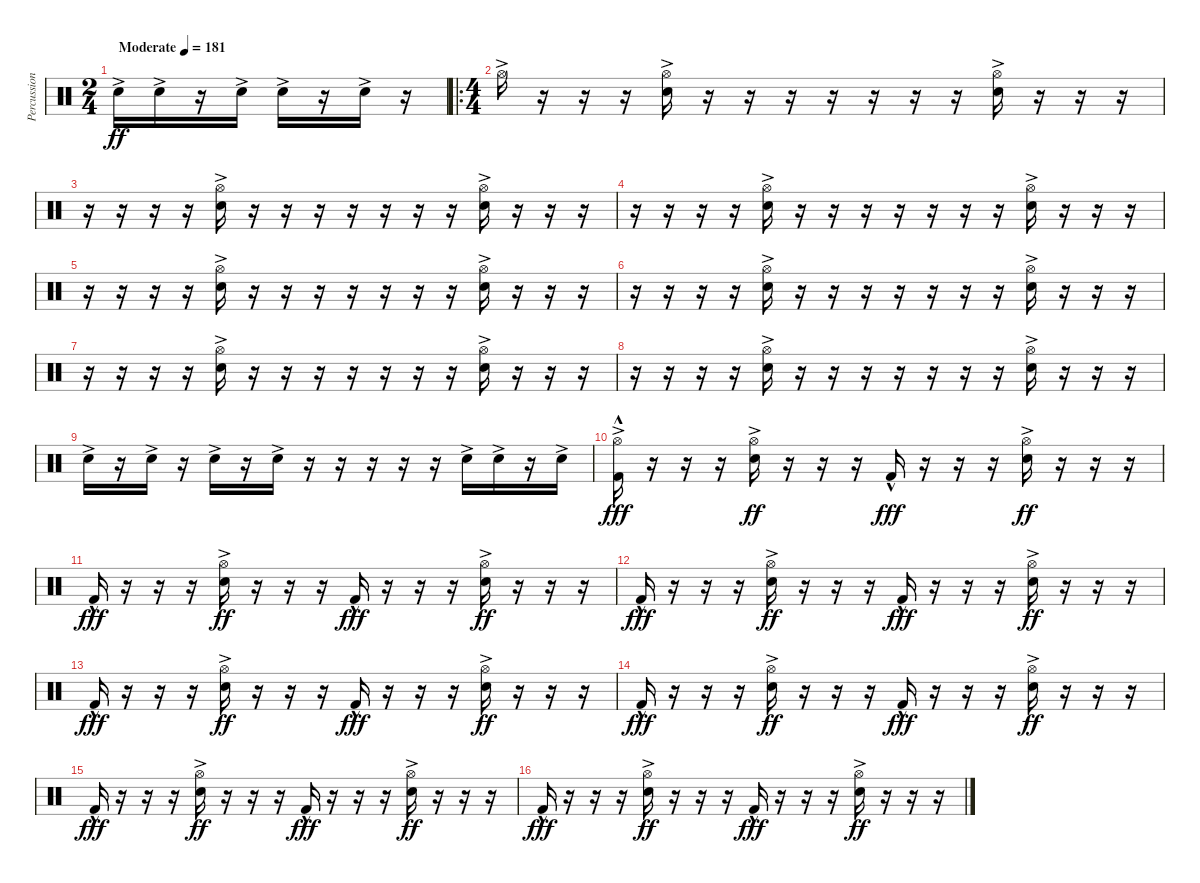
\track ("Percussion" "Percussion") {instrument percussion}
\staff {score}
\articulation defaults
\ts (2 4)
\tempo (181 "Moderate")
\clef neutral
\ks c "Snare (hit) 2"{ac}.16{dy ff} "Snare (hit) 2"{ac}.16
r.16 "Snare (hit) 2"{ac}.16 "Snare (hit) 2"{ac}.16 r.16 "Snare (hit) 2"{ac}.16 r.16 |
\ro
\ts (4 4)
"Hi-Hat (open)"{ac}.16 r.16 r.16 r.16 ("Hi-Hat (open)"{ac} "Snare (hit) 2"{ac}).16 r.16 r.16 r.16 r.16 r.16 r.16 r.16 ("Hi-Hat (open)"{ac} "Snare (hit) 2"{ac}).16 r.16 r.16 r.16 |
r.16 r.16 r.16 r.16 ("Hi-Hat (open)"{ac} "Snare (hit) 2"{ac}).16 r.16 r.16 r.16 r.16 r.16 r.16 r.16 ("Hi-Hat (open)"{ac} "Snare (hit) 2"{ac}).16 r.16 r.16 r.16 |
r.16 r.16 r.16 r.16 ("Hi-Hat (open)"{ac} "Snare (hit) 2"{ac}).16 r.16 r.16 r.16 r.16 r.16 r.16 r.16 ("Hi-Hat (open)"{ac} "Snare (hit) 2"{ac}).16 r.16 r.16 r.16 |
r.16 r.16 r.16 r.16 ("Hi-Hat (open)"{ac} "Snare (hit) 2"{ac}).16 r.16 r.16 r.16 r.16 r.16 r.16 r.16 ("Hi-Hat (open)"{ac} "Snare (hit) 2"{ac}).16 r.16 r.16 r.16 |
r.16 r.16 r.16 r.16 ("Hi-Hat (open)"{ac} "Snare (hit) 2"{ac}).16 r.16 r.16 r.16 r.16 r.16 r.16 r.16 ("Hi-Hat (open)"{ac} "Snare (hit) 2"{ac}).16 r.16 r.16 r.16 |
r.16 r.16 r.16 r.16 ("Hi-Hat (open)"{ac} "Snare (hit) 2"{ac}).16 r.16 r.16 r.16 r.16 r.16 r.16 r.16 ("Hi-Hat (open)"{ac} "Snare (hit) 2"{ac}).16 r.16 r.16 r.16 |
r.16 r.16 r.16 r.16 ("Hi-Hat (open)"{ac} "Snare (hit) 2"{ac}).16 r.16 r.16 r.16 r.16 r.16 r.16 r.16 ("Hi-Hat (open)"{ac} "Snare (hit) 2"{ac}).16 r.16 r.16 r.16 |
"Snare (hit) 2"{ac}.16 r.16 "Snare (hit) 2"{ac}.16 r.16 "Snare (hit) 2"{ac}.16 r.16 "Snare (hit) 2"{ac}.16 r.16 r.16 r.16 r.16 r.16 "Snare (hit) 2"{ac}.16 "Snare (hit) 2"{ac}.16 r.16 "Snare (hit) 2"{ac}.16 |
("Hi-Hat (open)"{ac} "Kick (hit) 2"{hac}).16{dy fff} r.16 r.16 r.16 ("Hi-Hat (open)"{ac} "Snare (hit) 2"{ac}).16{dy ff} r.16 r.16 r.16 "Kick (hit) 2"{hac}.16{dy fff} r.16 r.16 r.16 ("Hi-Hat (open)"{ac} "Snare (hit) 2"{ac}).16{dy ff} r.16 r.16 r.16 |
"Kick (hit) 2"{hac}.16{dy fff} r.16 r.16 r.16 ("Hi-Hat (open)"{ac} "Snare (hit) 2"{ac}).16{dy ff} r.16 r.16 r.16 "Kick (hit) 2"{hac}.16{dy fff} r.16 r.16 r.16 ("Hi-Hat (open)"{ac} "Snare (hit) 2"{ac}).16{dy ff} r.16 r.16 r.16 |
"Kick (hit) 2"{hac}.16{dy fff} r.16 r.16 r.16 ("Hi-Hat (open)"{ac} "Snare (hit) 2"{ac}).16{dy ff} r.16 r.16 r.16 "Kick (hit) 2"{hac}.16{dy fff} r.16 r.16 r.16 ("Hi-Hat (open)"{ac} "Snare (hit) 2"{ac}).16{dy ff} r.16 r.16 r.16 |
"Kick (hit) 2"{hac}.16{dy fff} r.16 r.16 r.16 ("Hi-Hat (open)"{ac} "Snare (hit) 2"{ac}).16{dy ff} r.16 r.16 r.16 "Kick (hit) 2"{hac}.16{dy fff} r.16 r.16 r.16 ("Hi-Hat (open)"{ac} "Snare (hit) 2"{ac}).16{dy ff} r.16 r.16 r.16 |
"Kick (hit) 2"{hac}.16{dy fff} r.16 r.16 r.16 ("Hi-Hat (open)"{ac} "Snare (hit) 2"{ac}).16{dy ff} r.16 r.16 r.16 "Kick (hit) 2"{hac}.16{dy fff} r.16 r.16 r.16 ("Hi-Hat (open)"{ac} "Snare (hit) 2"{ac}).16{dy ff} r.16 r.16 r.16 |
"Kick (hit) 2"{hac}.16{dy fff} r.16 r.16 r.16 ("Hi-Hat (open)"{ac} "Snare (hit) 2"{ac}).16{dy ff} r.16 r.16 r.16 "Kick (hit) 2"{hac}.16{dy fff} r.16 r.16 r.16 ("Hi-Hat (open)"{ac} "Snare (hit) 2"{ac}).16{dy ff} r.16 r.16 r.16 |
"Kick (hit) 2"{hac}.16{dy fff} r.16 r.16 r.16 ("Hi-Hat (open)"{ac} "Snare (hit) 2"{ac}).16{dy ff} r.16 r.16 r.16 "Kick (hit) 2"{hac}.16{dy fff} r.16 r.16 r.16 ("Hi-Hat (open)"{ac} "Snare (hit) 2"{ac}).16{dy ff} r.16 r.16 r.16
